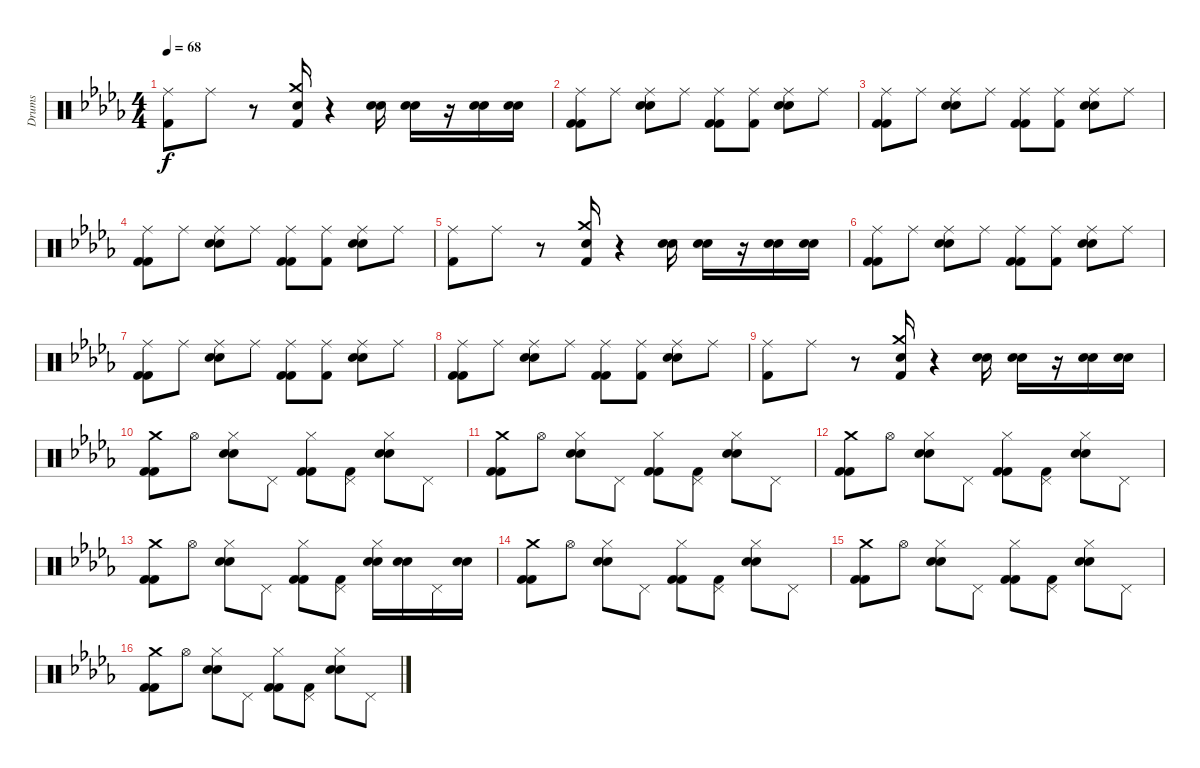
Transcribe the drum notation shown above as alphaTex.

\track ("Drums" "Drums") {instrument percussion}
\staff {score}
\articulation defaults
\ts (4 4)
\tempo 68
\clef neutral
\ks bbminor
("Ride (middle)" "Kick (hit) 2").8{dy f} "Ride (middle)".8 r.8 ("Crash medium (hit)" "Snare (hit) 2" "Kick (hit) 2").16 r.4 ("Snare (hit) 2" "Snare (hit) 2").16 ("Snare (hit) 2" "Snare (hit) 2").16 r.16 ("Snare (hit) 2" "Snare (hit) 2").16 ("Snare (hit) 2" "Snare (hit) 2").16 |
("Ride (middle)" "Kick (hit) 2" "Kick (hit) 2").8 "Ride (middle)".8 ("Ride (middle)" "Snare (hit) 2" "Snare (hit) 2").8 "Ride (middle)".8 ("Ride (middle)" "Kick (hit) 2" "Kick (hit) 2").8 ("Ride (middle)" "Kick (hit) 2").8 ("Ride (middle)" "Snare (hit) 2" "Snare (hit) 2").8 "Ride (middle)".8 |
("Ride (middle)" "Kick (hit) 2" "Kick (hit) 2").8 "Ride (middle)".8 ("Ride (middle)" "Snare (hit) 2" "Snare (hit) 2").8 "Ride (middle)".8 ("Ride (middle)" "Kick (hit) 2" "Kick (hit) 2").8 ("Ride (middle)" "Kick (hit) 2").8 ("Ride (middle)" "Snare (hit) 2" "Snare (hit) 2").8 "Ride (middle)".8 |
("Ride (middle)" "Kick (hit) 2" "Kick (hit) 2").8 "Ride (middle)".8 ("Ride (middle)" "Snare (hit) 2" "Snare (hit) 2").8 "Ride (middle)".8 ("Ride (middle)" "Kick (hit) 2" "Kick (hit) 2").8 ("Ride (middle)" "Kick (hit) 2").8 ("Ride (middle)" "Snare (hit) 2" "Snare (hit) 2").8 "Ride (middle)".8 |
("Ride (middle)" "Kick (hit) 2").8 "Ride (middle)".8 r.8 ("Crash medium (hit)" "Snare (hit) 2" "Kick (hit) 2").16 r.4 ("Snare (hit) 2" "Snare (hit) 2").16 ("Snare (hit) 2" "Snare (hit) 2").16 r.16 ("Snare (hit) 2" "Snare (hit) 2").16 ("Snare (hit) 2" "Snare (hit) 2").16 |
("Ride (middle)" "Kick (hit) 2" "Kick (hit) 2").8 "Ride (middle)".8 ("Ride (middle)" "Snare (hit) 2" "Snare (hit) 2").8 "Ride (middle)".8 ("Ride (middle)" "Kick (hit) 2" "Kick (hit) 2").8 ("Ride (middle)" "Kick (hit) 2").8 ("Ride (middle)" "Snare (hit) 2" "Snare (hit) 2").8 "Ride (middle)".8 |
("Ride (middle)" "Kick (hit) 2" "Kick (hit) 2").8 "Ride (middle)".8 ("Ride (middle)" "Snare (hit) 2" "Snare (hit) 2").8 "Ride (middle)".8 ("Ride (middle)" "Kick (hit) 2" "Kick (hit) 2").8 ("Ride (middle)" "Kick (hit) 2").8 ("Ride (middle)" "Snare (hit) 2" "Snare (hit) 2").8 "Ride (middle)".8 |
("Ride (middle)" "Kick (hit) 2" "Kick (hit) 2").8 "Ride (middle)".8 ("Ride (middle)" "Snare (hit) 2" "Snare (hit) 2").8 "Ride (middle)".8 ("Ride (middle)" "Kick (hit) 2" "Kick (hit) 2").8 ("Ride (middle)" "Kick (hit) 2").8 ("Ride (middle)" "Snare (hit) 2" "Snare (hit) 2").8 "Ride (middle)".8 |
("Ride (middle)" "Kick (hit) 2").8 "Ride (middle)".8 r.8 ("Crash medium (hit)" "Snare (hit) 2" "Kick (hit) 2").16 r.4 ("Snare (hit) 2" "Snare (hit) 2").16 ("Snare (hit) 2" "Snare (hit) 2").16 r.16 ("Snare (hit) 2" "Snare (hit) 2").16 ("Snare (hit) 2" "Snare (hit) 2").16 |
("Crash medium (hit)" "Kick (hit) 2" "Kick (hit) 2").8 "Hi-Hat (open)".8 ("Hi-Hat (closed)" "Snare (hit) 2" "Snare (hit) 2").8 "Pedal Hi-Hat (hit)".8 ("Hi-Hat (closed)" "Kick (hit) 2" "Kick (hit) 2").8 ("Pedal Hi-Hat (hit)" "Kick (hit) 2").8 ("Hi-Hat (closed)" "Snare (hit) 2" "Snare (hit) 2").8 "Pedal Hi-Hat (hit)".8 |
("Crash medium (hit)" "Kick (hit) 2" "Kick (hit) 2").8 "Hi-Hat (open)".8 ("Hi-Hat (closed)" "Snare (hit) 2" "Snare (hit) 2").8 "Pedal Hi-Hat (hit)".8 ("Hi-Hat (closed)" "Kick (hit) 2" "Kick (hit) 2").8 ("Pedal Hi-Hat (hit)" "Kick (hit) 2").8 ("Hi-Hat (closed)" "Snare (hit) 2" "Snare (hit) 2").8 "Pedal Hi-Hat (hit)".8 |
("Crash medium (hit)" "Kick (hit) 2" "Kick (hit) 2").8 "Hi-Hat (open)".8 ("Hi-Hat (closed)" "Snare (hit) 2" "Snare (hit) 2").8 "Pedal Hi-Hat (hit)".8 ("Hi-Hat (closed)" "Kick (hit) 2" "Kick (hit) 2").8 ("Pedal Hi-Hat (hit)" "Kick (hit) 2").8 ("Hi-Hat (closed)" "Snare (hit) 2" "Snare (hit) 2").8 "Pedal Hi-Hat (hit)".8 |
("Crash medium (hit)" "Kick (hit) 2" "Kick (hit) 2").8 "Hi-Hat (open)".8 ("Hi-Hat (closed)" "Snare (hit) 2" "Snare (hit) 2").8 "Pedal Hi-Hat (hit)".8 ("Hi-Hat (closed)" "Kick (hit) 2" "Kick (hit) 2").8 ("Pedal Hi-Hat (hit)" "Kick (hit) 2").8 ("Hi-Hat (closed)" "Snare (hit) 2" "Snare (hit) 2").16 ("Snare (hit) 2" "Snare (hit) 2").16 "Pedal Hi-Hat (hit)".16 ("Snare (hit) 2" "Snare (hit) 2").16 |
("Crash medium (hit)" "Kick (hit) 2" "Kick (hit) 2").8 "Hi-Hat (open)".8 ("Hi-Hat (closed)" "Snare (hit) 2" "Snare (hit) 2").8 "Pedal Hi-Hat (hit)".8 ("Hi-Hat (closed)" "Kick (hit) 2" "Kick (hit) 2").8 ("Pedal Hi-Hat (hit)" "Kick (hit) 2").8 ("Hi-Hat (closed)" "Snare (hit) 2" "Snare (hit) 2").8 "Pedal Hi-Hat (hit)".8 |
("Crash medium (hit)" "Kick (hit) 2" "Kick (hit) 2").8 "Hi-Hat (open)".8 ("Hi-Hat (closed)" "Snare (hit) 2" "Snare (hit) 2").8 "Pedal Hi-Hat (hit)".8 ("Hi-Hat (closed)" "Kick (hit) 2" "Kick (hit) 2").8 ("Pedal Hi-Hat (hit)" "Kick (hit) 2").8 ("Hi-Hat (closed)" "Snare (hit) 2" "Snare (hit) 2").8 "Pedal Hi-Hat (hit)".8 |
("Crash medium (hit)" "Kick (hit) 2" "Kick (hit) 2").8 "Hi-Hat (open)".8 ("Hi-Hat (closed)" "Snare (hit) 2" "Snare (hit) 2").8 "Pedal Hi-Hat (hit)".8 ("Hi-Hat (closed)" "Kick (hit) 2" "Kick (hit) 2").8 ("Pedal Hi-Hat (hit)" "Kick (hit) 2").8 ("Hi-Hat (closed)" "Snare (hit) 2" "Snare (hit) 2").8 "Pedal Hi-Hat (hit)".8
